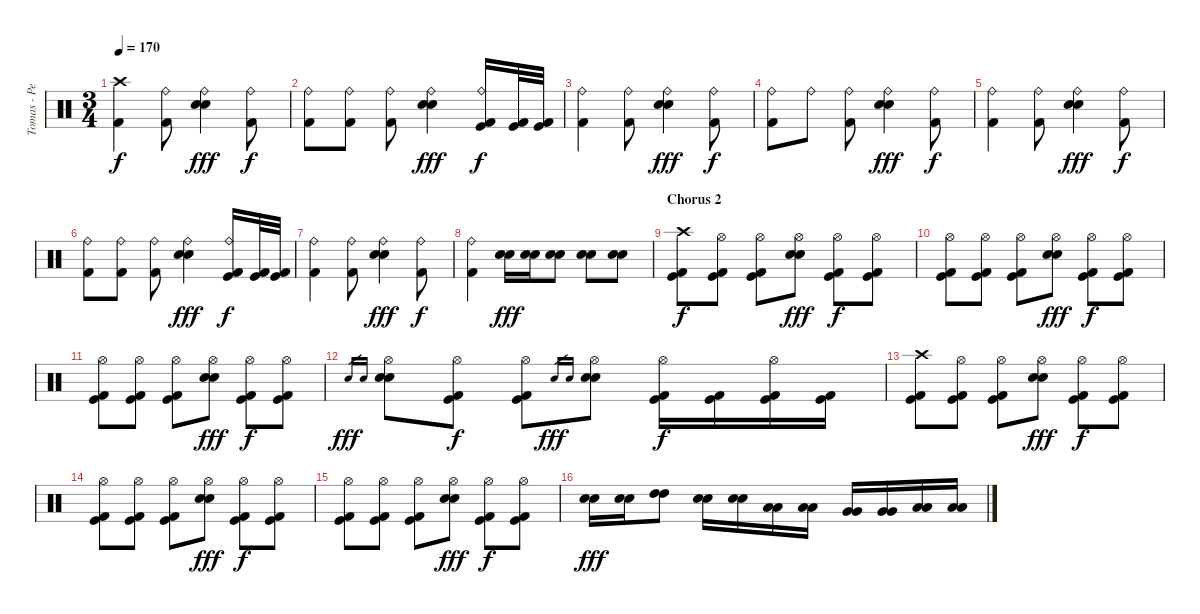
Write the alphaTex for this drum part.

\track ("Tomas - Percussions" "Tomas - Pe") {instrument percussion}
\staff {score}
\articulation defaults
\ts (3 4)
\tempo 170
\clef neutral
\ks c
("Crash high (hit)" "Kick (hit) 2").4{dy f} ("Ride (bell)" "Kick (hit) 2").8 ("Ride (bell)" "Electric Snare (hit)" "Electric Snare (hit)").4{dy fff} ("Ride (bell)" "Kick (hit) 2").8{dy f} |
("Ride (bell)" "Kick (hit) 2").8 ("Ride (bell)" "Kick (hit) 2").8 ("Ride (bell)" "Kick (hit) 2").8 ("Ride (bell)" "Electric Snare (hit)" "Electric Snare (hit)").4{dy fff} ("Ride (bell)" "Kick (hit)" "Kick (hit) 2").16{dy f} ("Kick (hit)" "Kick (hit) 2").32 ("Kick (hit)" "Kick (hit) 2").32 |
("Ride (bell)" "Kick (hit) 2").4 ("Ride (bell)" "Kick (hit) 2").8 ("Ride (bell)" "Electric Snare (hit)" "Electric Snare (hit)").4{dy fff} ("Ride (bell)" "Kick (hit) 2").8{dy f} |
("Ride (bell)" "Kick (hit) 2").8 "Ride (bell)".8 ("Ride (bell)" "Kick (hit) 2").8 ("Ride (bell)" "Electric Snare (hit)" "Electric Snare (hit)").4{dy fff} ("Ride (bell)" "Kick (hit) 2").8{dy f} |
("Ride (bell)" "Kick (hit) 2").4 ("Ride (bell)" "Kick (hit) 2").8 ("Ride (bell)" "Electric Snare (hit)" "Electric Snare (hit)").4{dy fff} ("Ride (bell)" "Kick (hit) 2").8{dy f} |
("Ride (bell)" "Kick (hit) 2").8 ("Ride (bell)" "Kick (hit) 2").8 ("Ride (bell)" "Kick (hit) 2").8 ("Ride (bell)" "Electric Snare (hit)" "Electric Snare (hit)").4{dy fff} ("Ride (bell)" "Kick (hit)" "Kick (hit) 2").16{dy f} ("Kick (hit)" "Kick (hit) 2").32 ("Kick (hit)" "Kick (hit) 2").32 |
("Ride (bell)" "Kick (hit) 2").4 ("Ride (bell)" "Kick (hit) 2").8 ("Ride (bell)" "Electric Snare (hit)" "Electric Snare (hit)").4{dy fff} ("Ride (bell)" "Kick (hit) 2").8{dy f} |
("Ride (bell)" "Kick (hit) 2").4 ("Electric Snare (hit)" "Electric Snare (hit)").16{dy fff} ("Electric Snare (hit)" "Electric Snare (hit)").16 ("Electric Snare (hit)" "Electric Snare (hit)").8 ("Electric Snare (hit)" "Electric Snare (hit)").8 ("Electric Snare (hit)" "Electric Snare (hit)").8 |
\section ("" "Chorus 2")
("Crash high (hit)" "Kick (hit)" "Kick (hit) 2").8{dy f} ("Hi-Hat (open)" "Kick (hit)" "Kick (hit) 2").8 ("Hi-Hat (open)" "Kick (hit)" "Kick (hit) 2").8 ("Hi-Hat (open)" "Electric Snare (hit)" "Electric Snare (hit)").8{dy fff} ("Hi-Hat (open)" "Kick (hit)" "Kick (hit) 2").8{dy f} ("Hi-Hat (open)" "Kick (hit)" "Kick (hit) 2").8 |
("Hi-Hat (open)" "Kick (hit)" "Kick (hit) 2").8 ("Hi-Hat (open)" "Kick (hit)" "Kick (hit) 2").8 ("Hi-Hat (open)" "Kick (hit)" "Kick (hit) 2").8 ("Hi-Hat (open)" "Electric Snare (hit)" "Electric Snare (hit)").8{dy fff} ("Hi-Hat (open)" "Kick (hit)" "Kick (hit) 2").8{dy f} ("Hi-Hat (open)" "Kick (hit)" "Kick (hit) 2").8 |
("Hi-Hat (open)" "Kick (hit)" "Kick (hit) 2").8 ("Hi-Hat (open)" "Kick (hit)" "Kick (hit) 2").8 ("Hi-Hat (open)" "Kick (hit)" "Kick (hit) 2").8 ("Hi-Hat (open)" "Electric Snare (hit)" "Electric Snare (hit)").8{dy fff} ("Hi-Hat (open)" "Kick (hit)" "Kick (hit) 2").8{dy f} ("Hi-Hat (open)" "Kick (hit)" "Kick (hit) 2").8 |
"Electric Snare (hit)".16{gr dy fff} "Electric Snare (hit)".16{gr} ("Hi-Hat (open)" "Electric Snare (hit)" "Electric Snare (hit)").8 ("Hi-Hat (open)" "Kick (hit)" "Kick (hit) 2").8{dy f} ("Hi-Hat (open)" "Kick (hit)" "Kick (hit) 2").8 "Electric Snare (hit)".16{gr dy fff} "Electric Snare (hit)".16{gr} ("Hi-Hat (open)" "Electric Snare (hit)" "Electric Snare (hit)").8 ("Hi-Hat (open)" "Kick (hit)" "Kick (hit) 2").16{dy f} ("Kick (hit)" "Kick (hit) 2").16 ("Hi-Hat (open)" "Kick (hit)" "Kick (hit) 2").16 ("Kick (hit)" "Kick (hit) 2").16 |
("Crash high (hit)" "Kick (hit)" "Kick (hit) 2").8 ("Hi-Hat (open)" "Kick (hit)" "Kick (hit) 2").8 ("Hi-Hat (open)" "Kick (hit)" "Kick (hit) 2").8 ("Hi-Hat (open)" "Electric Snare (hit)" "Electric Snare (hit)").8{dy fff} ("Hi-Hat (open)" "Kick (hit)" "Kick (hit) 2").8{dy f} ("Hi-Hat (open)" "Kick (hit)" "Kick (hit) 2").8 |
("Hi-Hat (open)" "Kick (hit)" "Kick (hit) 2").8 ("Hi-Hat (open)" "Kick (hit)" "Kick (hit) 2").8 ("Hi-Hat (open)" "Kick (hit)" "Kick (hit) 2").8 ("Hi-Hat (open)" "Electric Snare (hit)" "Electric Snare (hit)").8{dy fff} ("Hi-Hat (open)" "Kick (hit)" "Kick (hit) 2").8{dy f} ("Hi-Hat (open)" "Kick (hit)" "Kick (hit) 2").8 |
("Hi-Hat (open)" "Kick (hit)" "Kick (hit) 2").8 ("Hi-Hat (open)" "Kick (hit)" "Kick (hit) 2").8 ("Hi-Hat (open)" "Kick (hit)" "Kick (hit) 2").8 ("Hi-Hat (open)" "Electric Snare (hit)" "Electric Snare (hit)").8{dy fff} ("Hi-Hat (open)" "Kick (hit)" "Kick (hit) 2").8{dy f} ("Hi-Hat (open)" "Kick (hit)" "Kick (hit) 2").8 |
("Electric Snare (hit)" "Electric Snare (hit)").16{dy fff} ("Electric Snare (hit)" "Electric Snare (hit)").16 ("High Tom (hit)" "High Tom (hit)").8 ("Electric Snare (hit)" "Electric Snare (hit)").16 ("Electric Snare (hit)" "Electric Snare (hit)").16 ("Low Tom (hit)" "Low Tom (hit)").16 ("Low Tom (hit)" "Low Tom (hit)").16 ("Very Low Tom (hit)" "Very Low Tom (hit)").16 ("Very Low Tom (hit)" "Very Low Tom (hit)").16 ("Low Floor Tom (hit)" "Low Floor Tom (hit)").16 ("Low Floor Tom (hit)" "Low Floor Tom (hit)").16
